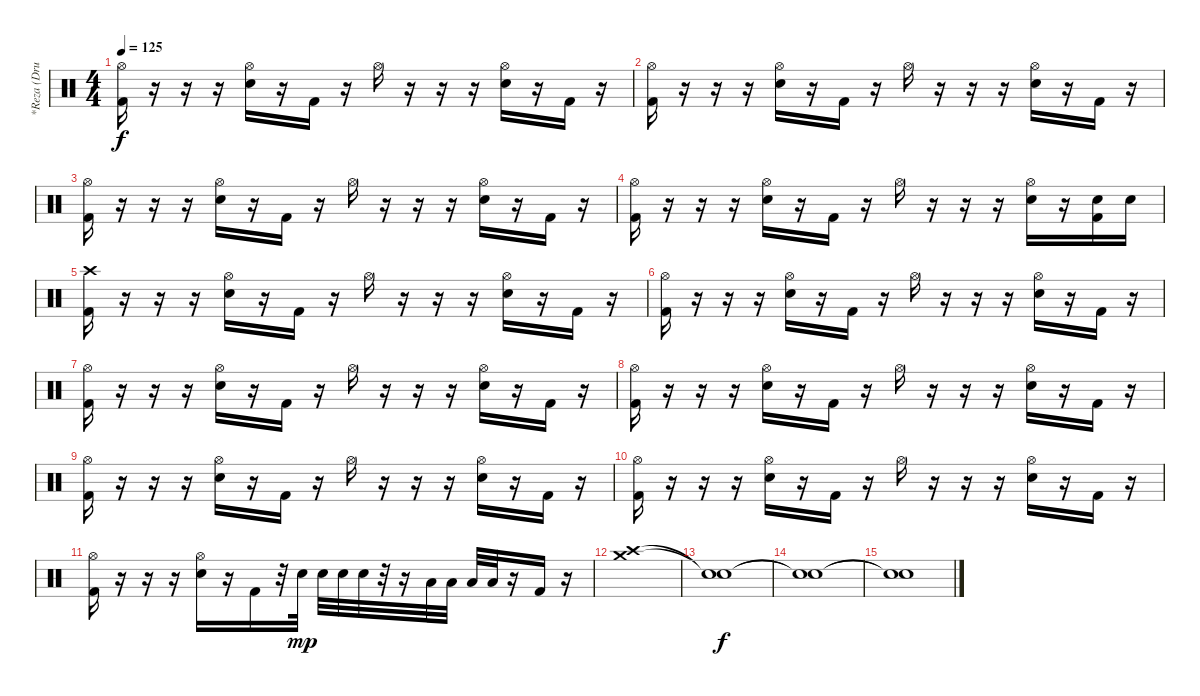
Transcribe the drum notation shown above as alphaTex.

\track ("*Reza (Drum)" "*Reza (Dru") {instrument percussion}
\staff {score}
\articulation defaults
\ts (4 4)
\tempo 125
\clef neutral
\ks c
("Hi-Hat (open)" "Kick (hit) 2").16{dy f} r.16 r.16 r.16 ("Hi-Hat (open)" "Electric Snare (hit)").16 r.16 "Kick (hit) 2".16 r.16 "Hi-Hat (open)".16 r.16 r.16 r.16 ("Hi-Hat (open)" "Electric Snare (hit)").16 r.16 "Kick (hit) 2".16 r.16 |
("Hi-Hat (open)" "Kick (hit) 2").16 r.16 r.16 r.16 ("Hi-Hat (open)" "Electric Snare (hit)").16 r.16 "Kick (hit) 2".16 r.16 "Hi-Hat (open)".16 r.16 r.16 r.16 ("Hi-Hat (open)" "Electric Snare (hit)").16 r.16 "Kick (hit) 2".16 r.16 |
("Hi-Hat (open)" "Kick (hit) 2").16 r.16 r.16 r.16 ("Hi-Hat (open)" "Electric Snare (hit)").16 r.16 "Kick (hit) 2".16 r.16 "Hi-Hat (open)".16 r.16 r.16 r.16 ("Hi-Hat (open)" "Electric Snare (hit)").16 r.16 "Kick (hit) 2".16 r.16 |
("Hi-Hat (open)" "Kick (hit) 2").16 r.16 r.16 r.16 ("Hi-Hat (open)" "Electric Snare (hit)").16 r.16 "Kick (hit) 2".16 r.16 "Hi-Hat (open)".16 r.16 r.16 r.16 ("Hi-Hat (open)" "Electric Snare (hit)").16 r.16 ("Electric Snare (hit)" "Kick (hit) 2").16 "Electric Snare (hit)".16 |
("Crash high (hit)" "Kick (hit) 2").16 r.16 r.16 r.16 ("Hi-Hat (open)" "Electric Snare (hit)").16 r.16 "Kick (hit) 2".16 r.16 "Hi-Hat (open)".16 r.16 r.16 r.16 ("Hi-Hat (open)" "Electric Snare (hit)").16 r.16 "Kick (hit) 2".16 r.16 |
("Hi-Hat (open)" "Kick (hit) 2").16 r.16 r.16 r.16 ("Hi-Hat (open)" "Electric Snare (hit)").16 r.16 "Kick (hit) 2".16 r.16 "Hi-Hat (open)".16 r.16 r.16 r.16 ("Hi-Hat (open)" "Electric Snare (hit)").16 r.16 "Kick (hit) 2".16 r.16 |
("Hi-Hat (open)" "Kick (hit) 2").16 r.16 r.16 r.16 ("Hi-Hat (open)" "Electric Snare (hit)").16 r.16 "Kick (hit) 2".16 r.16 "Hi-Hat (open)".16 r.16 r.16 r.16 ("Hi-Hat (open)" "Electric Snare (hit)").16 r.16 "Kick (hit) 2".16 r.16 |
("Hi-Hat (open)" "Kick (hit) 2").16 r.16 r.16 r.16 ("Hi-Hat (open)" "Electric Snare (hit)").16 r.16 "Kick (hit) 2".16 r.16 "Hi-Hat (open)".16 r.16 r.16 r.16 ("Hi-Hat (open)" "Electric Snare (hit)").16 r.16 "Kick (hit) 2".16 r.16 |
("Hi-Hat (open)" "Kick (hit) 2").16 r.16 r.16 r.16 ("Hi-Hat (open)" "Electric Snare (hit)").16 r.16 "Kick (hit) 2".16 r.16 "Hi-Hat (open)".16 r.16 r.16 r.16 ("Hi-Hat (open)" "Electric Snare (hit)").16 r.16 "Kick (hit) 2".16 r.16 |
("Hi-Hat (open)" "Kick (hit) 2").16 r.16 r.16 r.16 ("Hi-Hat (open)" "Electric Snare (hit)").16 r.16 "Kick (hit) 2".16 r.16 "Hi-Hat (open)".16 r.16 r.16 r.16 ("Hi-Hat (open)" "Electric Snare (hit)").16 r.16 "Kick (hit) 2".16 r.16 |
("Hi-Hat (open)" "Kick (hit) 2").16 r.16 r.16 r.16 ("Hi-Hat (open)" "Electric Snare (hit)").16 r.16 "Kick (hit) 2".16 r.32 "Electric Snare (hit)".32{dy mp} "Electric Snare (hit)".32 "Electric Snare (hit)".32{beam merge} "Electric Snare (hit)".32 r.32 r.16 "Low Tom (hit)".32 "Low Tom (hit)".32 "Low Tom (hit)".32 "Low Tom (hit)".32 r.16 "Kick (hit) 2".16 r.16 |
("Crash high (hit)" "Crash medium (hit)").1 |
("Snare (hit)"{t} "Snare (hit)"{t}).1{dy f} |
("Snare (hit)"{t} "Snare (hit)"{t}).1 |
("Snare (hit)"{t} "Snare (hit)"{t}).1
